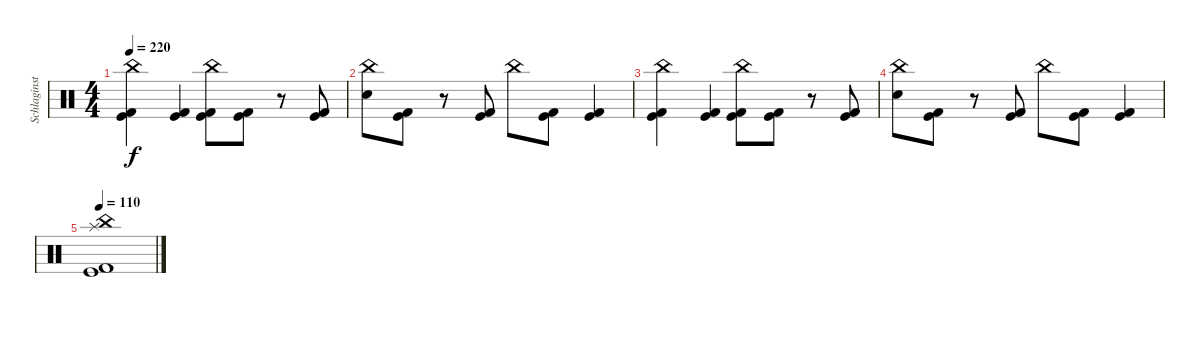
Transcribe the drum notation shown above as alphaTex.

\track ("Schlaginstrumente - Auswahl" "Schlaginst") {instrument percussion}
\staff {score}
\articulation defaults
\ts (4 4)
\tempo 220
\clef neutral
\ks c
("China (hit)" "Kick (hit) 2" "Kick (hit)").4{dy f} ("Kick (hit) 2" "Kick (hit)").4 ("China (hit)" "Kick (hit) 2" "Kick (hit)").8 ("Kick (hit) 2" "Kick (hit)").8 r.8 ("Kick (hit) 2" "Kick (hit)").8 |
("China (hit)" "Electric Snare (hit)").8 ("Kick (hit) 2" "Kick (hit)").8 r.8 ("Kick (hit) 2" "Kick (hit)").8 "China (hit)".8 ("Kick (hit) 2" "Kick (hit)").8 ("Kick (hit) 2" "Kick (hit)").4 |
("China (hit)" "Kick (hit) 2" "Kick (hit)").4 ("Kick (hit) 2" "Kick (hit)").4 ("China (hit)" "Kick (hit) 2" "Kick (hit)").8 ("Kick (hit) 2" "Kick (hit)").8 r.8 ("Kick (hit) 2" "Kick (hit)").8 |
("China (hit)" "Electric Snare (hit)").8 ("Kick (hit) 2" "Kick (hit)").8 r.8 ("Kick (hit) 2" "Kick (hit)").8 "China (hit)".8 ("Kick (hit) 2" "Kick (hit)").8 ("Kick (hit) 2" "Kick (hit)").4 |
\tempo 110
("Splash (hit)" "China (hit)" "Kick (hit) 2" "Kick (hit)").1
